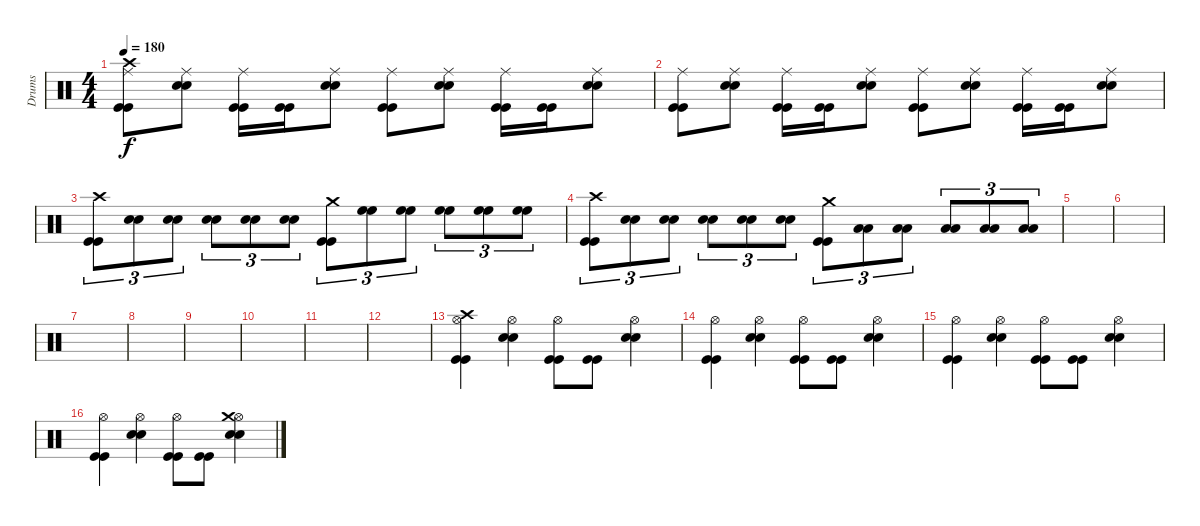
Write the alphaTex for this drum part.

\track ("Drums" "Drums") {instrument percussion}
\staff {score}
\articulation defaults
\ts (4 4)
\tempo 180
\clef neutral
\ks c
("Crash high (hit)" "Ride (middle)" "Kick (hit)" "Kick (hit)").8{dy f} ("Ride (middle)" "Snare (hit) 2" "Snare (hit) 2").8 ("Ride (middle)" "Kick (hit)" "Kick (hit)").16 ("Kick (hit)" "Kick (hit)").16 ("Ride (middle)" "Snare (hit) 2" "Snare (hit) 2").8 ("Ride (middle)" "Kick (hit)" "Kick (hit)").8 ("Ride (middle)" "Snare (hit) 2" "Snare (hit) 2").8 ("Ride (middle)" "Kick (hit)" "Kick (hit)").16 ("Kick (hit)" "Kick (hit)").16 ("Ride (middle)" "Snare (hit) 2" "Snare (hit) 2").8 |
("Ride (middle)" "Kick (hit)" "Kick (hit)").8 ("Ride (middle)" "Snare (hit) 2" "Snare (hit) 2").8 ("Ride (middle)" "Kick (hit)" "Kick (hit)").16 ("Kick (hit)" "Kick (hit)").16 ("Ride (middle)" "Snare (hit) 2" "Snare (hit) 2").8 ("Ride (middle)" "Kick (hit)" "Kick (hit)").8 ("Ride (middle)" "Snare (hit) 2" "Snare (hit) 2").8 ("Ride (middle)" "Kick (hit)" "Kick (hit)").16 ("Kick (hit)" "Kick (hit)").16 ("Ride (middle)" "Snare (hit) 2" "Snare (hit) 2").8 |
("Crash high (hit)" "Kick (hit)" "Kick (hit)").8{tu (3 2)} ("Snare (hit) 2" "Snare (hit) 2").8{tu (3 2)} ("Snare (hit) 2" "Snare (hit) 2").8{tu (3 2)} ("Snare (hit) 2" "Snare (hit) 2").8{tu (3 2)} ("Snare (hit) 2" "Snare (hit) 2").8{tu (3 2)} ("Snare (hit) 2" "Snare (hit) 2").8{tu (3 2)} ("Crash medium (hit)" "Kick (hit)" "Kick (hit)").8{tu (3 2)} ("High Floor Tom (hit)" "High Floor Tom (hit)").8{tu (3 2)} ("High Floor Tom (hit)" "High Floor Tom (hit)").8{tu (3 2)} ("High Floor Tom (hit)" "High Floor Tom (hit)").8{tu (3 2)} ("High Floor Tom (hit)" "High Floor Tom (hit)").8{tu (3 2)} ("High Floor Tom (hit)" "High Floor Tom (hit)").8{tu (3 2)} |
("Crash high (hit)" "Kick (hit)" "Kick (hit)").8{tu (3 2)} ("Snare (hit) 2" "Snare (hit) 2").8{tu (3 2)} ("Snare (hit) 2" "Snare (hit) 2").8{tu (3 2)} ("Snare (hit) 2" "Snare (hit) 2").8{tu (3 2)} ("Snare (hit) 2" "Snare (hit) 2").8{tu (3 2)} ("Snare (hit) 2" "Snare (hit) 2").8{tu (3 2)} ("Crash medium (hit)" "Kick (hit)" "Kick (hit)").8{tu (3 2)} ("Low Tom (hit)" "Low Tom (hit)").8{tu (3 2)} ("Low Tom (hit)" "Low Tom (hit)").8{tu (3 2)} ("Low Tom (hit)" "Low Tom (hit)").8{tu (3 2)} ("Low Tom (hit)" "Low Tom (hit)").8{tu (3 2)} ("Low Tom (hit)" "Low Tom (hit)").8{tu (3 2)} |
|
|
|
|
|
|
|
|
("Kick (hit)" "Kick (hit)" "Hi-Hat (open)" "Crash high (hit)").4 ("Snare (hit) 2" "Snare (hit) 2" "Hi-Hat (open)").4 ("Kick (hit)" "Kick (hit)" "Hi-Hat (open)").8 ("Kick (hit)" "Kick (hit)").8 ("Snare (hit) 2" "Snare (hit) 2" "Hi-Hat (open)").4 |
("Kick (hit)" "Kick (hit)" "Hi-Hat (open)").4 ("Snare (hit) 2" "Snare (hit) 2" "Hi-Hat (open)").4 ("Kick (hit)" "Kick (hit)" "Hi-Hat (open)").8 ("Kick (hit)" "Kick (hit)").8 ("Snare (hit) 2" "Snare (hit) 2" "Hi-Hat (open)").4 |
("Kick (hit)" "Kick (hit)" "Hi-Hat (open)").4 ("Snare (hit) 2" "Snare (hit) 2" "Hi-Hat (open)").4 ("Kick (hit)" "Kick (hit)" "Hi-Hat (open)").8 ("Kick (hit)" "Kick (hit)").8 ("Snare (hit) 2" "Snare (hit) 2" "Hi-Hat (open)").4 |
("Kick (hit)" "Kick (hit)" "Hi-Hat (open)").4 ("Snare (hit) 2" "Snare (hit) 2" "Hi-Hat (open)").4 ("Kick (hit)" "Kick (hit)" "Hi-Hat (open)").8 ("Kick (hit)" "Kick (hit)").8 ("Snare (hit) 2" "Snare (hit) 2" "Hi-Hat (open)" "Crash medium (hit)").4
